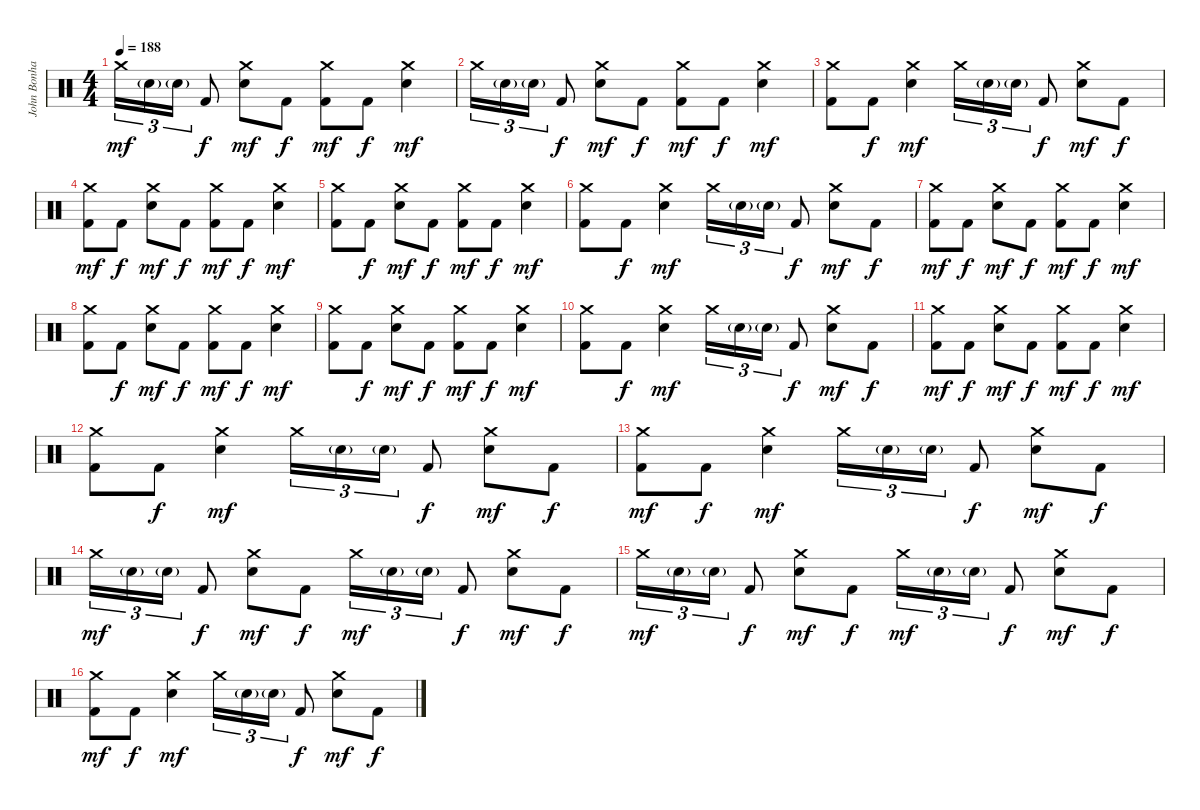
\track ("John Bonham - Drums" "John Bonha") {instrument percussion}
\staff {score}
\articulation defaults
\ts (4 4)
\tempo 188
\clef neutral
\ks c "Crash medium (hit)".16{tu (3 2) dy mf} "Electric Snare (hit)"{g}.16{tu (3 2)} "Electric Snare (hit)"{g}.16{tu (3 2)} "Kick (hit) 2".8{dy f}
("Crash medium (hit)" "Electric Snare (hit)").8{dy mf} "Kick (hit) 2".8{dy f} ("Crash medium (hit)" "Kick (hit) 2").8{dy mf} "Kick (hit) 2".8{dy f} ("Crash medium (hit)" "Electric Snare (hit)").4{dy mf} |
"Crash medium (hit)".16{tu (3 2)} "Electric Snare (hit)"{g}.16{tu (3 2)} "Electric Snare (hit)"{g}.16{tu (3 2)} "Kick (hit) 2".8{dy f} ("Crash medium (hit)" "Electric Snare (hit)").8{dy mf} "Kick (hit) 2".8{dy f} ("Crash medium (hit)" "Kick (hit) 2").8{dy mf} "Kick (hit) 2".8{dy f} ("Crash medium (hit)" "Electric Snare (hit)").4{dy mf} |
("Crash medium (hit)" "Kick (hit) 2").8 "Kick (hit) 2".8{dy f} ("Crash medium (hit)" "Electric Snare (hit)").4{dy mf} "Crash medium (hit)".16{tu (3 2)} "Electric Snare (hit)"{g}.16{tu (3 2)} "Electric Snare (hit)"{g}.16{tu (3 2)} "Kick (hit) 2".8{dy f} ("Crash medium (hit)" "Electric Snare (hit)").8{dy mf} "Kick (hit) 2".8{dy f} |
("Crash medium (hit)" "Kick (hit) 2").8{dy mf} "Kick (hit) 2".8{dy f} ("Crash medium (hit)" "Electric Snare (hit)").8{dy mf} "Kick (hit) 2".8{dy f} ("Crash medium (hit)" "Kick (hit) 2").8{dy mf} "Kick (hit) 2".8{dy f} ("Crash medium (hit)" "Electric Snare (hit)").4{dy mf} |
("Crash medium (hit)" "Kick (hit) 2").8 "Kick (hit) 2".8{dy f} ("Crash medium (hit)" "Electric Snare (hit)").8{dy mf} "Kick (hit) 2".8{dy f} ("Crash medium (hit)" "Kick (hit) 2").8{dy mf} "Kick (hit) 2".8{dy f} ("Crash medium (hit)" "Electric Snare (hit)").4{dy mf} |
("Crash medium (hit)" "Kick (hit) 2").8 "Kick (hit) 2".8{dy f} ("Crash medium (hit)" "Electric Snare (hit)").4{dy mf} "Crash medium (hit)".16{tu (3 2)} "Electric Snare (hit)"{g}.16{tu (3 2)} "Electric Snare (hit)"{g}.16{tu (3 2)} "Kick (hit) 2".8{dy f} ("Crash medium (hit)" "Electric Snare (hit)").8{dy mf} "Kick (hit) 2".8{dy f} |
("Crash medium (hit)" "Kick (hit) 2").8{dy mf} "Kick (hit) 2".8{dy f} ("Crash medium (hit)" "Electric Snare (hit)").8{dy mf} "Kick (hit) 2".8{dy f} ("Crash medium (hit)" "Kick (hit) 2").8{dy mf} "Kick (hit) 2".8{dy f} ("Crash medium (hit)" "Electric Snare (hit)").4{dy mf} |
("Crash medium (hit)" "Kick (hit) 2").8 "Kick (hit) 2".8{dy f} ("Crash medium (hit)" "Electric Snare (hit)").8{dy mf} "Kick (hit) 2".8{dy f} ("Crash medium (hit)" "Kick (hit) 2").8{dy mf} "Kick (hit) 2".8{dy f} ("Crash medium (hit)" "Electric Snare (hit)").4{dy mf} |
("Crash medium (hit)" "Kick (hit) 2").8 "Kick (hit) 2".8{dy f} ("Crash medium (hit)" "Electric Snare (hit)").8{dy mf} "Kick (hit) 2".8{dy f} ("Crash medium (hit)" "Kick (hit) 2").8{dy mf} "Kick (hit) 2".8{dy f} ("Crash medium (hit)" "Electric Snare (hit)").4{dy mf} |
("Crash medium (hit)" "Kick (hit) 2").8 "Kick (hit) 2".8{dy f} ("Crash medium (hit)" "Electric Snare (hit)").4{dy mf} "Crash medium (hit)".16{tu (3 2)} "Electric Snare (hit)"{g}.16{tu (3 2)} "Electric Snare (hit)"{g}.16{tu (3 2)} "Kick (hit) 2".8{dy f} ("Crash medium (hit)" "Electric Snare (hit)").8{dy mf} "Kick (hit) 2".8{dy f} |
("Crash medium (hit)" "Kick (hit) 2").8{dy mf} "Kick (hit) 2".8{dy f} ("Crash medium (hit)" "Electric Snare (hit)").8{dy mf} "Kick (hit) 2".8{dy f} ("Crash medium (hit)" "Kick (hit) 2").8{dy mf} "Kick (hit) 2".8{dy f} ("Crash medium (hit)" "Electric Snare (hit)").4{dy mf} |
("Crash medium (hit)" "Kick (hit) 2").8 "Kick (hit) 2".8{dy f} ("Crash medium (hit)" "Electric Snare (hit)").4{dy mf} "Crash medium (hit)".16{tu (3 2)} "Electric Snare (hit)"{g}.16{tu (3 2)} "Electric Snare (hit)"{g}.16{tu (3 2)} "Kick (hit) 2".8{dy f} ("Crash medium (hit)" "Electric Snare (hit)").8{dy mf} "Kick (hit) 2".8{dy f} |
("Crash medium (hit)" "Kick (hit) 2").8{dy mf} "Kick (hit) 2".8{dy f} ("Crash medium (hit)" "Electric Snare (hit)").4{dy mf} "Crash medium (hit)".16{tu (3 2)} "Electric Snare (hit)"{g}.16{tu (3 2)} "Electric Snare (hit)"{g}.16{tu (3 2)} "Kick (hit) 2".8{dy f} ("Crash medium (hit)" "Electric Snare (hit)").8{dy mf} "Kick (hit) 2".8{dy f} |
"Crash medium (hit)".16{tu (3 2) dy mf} "Electric Snare (hit)"{g}.16{tu (3 2)} "Electric Snare (hit)"{g}.16{tu (3 2)} "Kick (hit) 2".8{dy f} ("Crash medium (hit)" "Electric Snare (hit)").8{dy mf} "Kick (hit) 2".8{dy f} "Crash medium (hit)".16{tu (3 2) dy mf} "Electric Snare (hit)"{g}.16{tu (3 2)} "Electric Snare (hit)"{g}.16{tu (3 2)} "Kick (hit) 2".8{dy f} ("Crash medium (hit)" "Electric Snare (hit)").8{dy mf} "Kick (hit) 2".8{dy f} |
"Crash medium (hit)".16{tu (3 2) dy mf} "Electric Snare (hit)"{g}.16{tu (3 2)} "Electric Snare (hit)"{g}.16{tu (3 2)} "Kick (hit) 2".8{dy f} ("Crash medium (hit)" "Electric Snare (hit)").8{dy mf} "Kick (hit) 2".8{dy f} "Crash medium (hit)".16{tu (3 2) dy mf} "Electric Snare (hit)"{g}.16{tu (3 2)} "Electric Snare (hit)"{g}.16{tu (3 2)} "Kick (hit) 2".8{dy f} ("Crash medium (hit)" "Electric Snare (hit)").8{dy mf} "Kick (hit) 2".8{dy f} |
("Crash medium (hit)" "Kick (hit) 2").8{dy mf} "Kick (hit) 2".8{dy f} ("Crash medium (hit)" "Electric Snare (hit)").4{dy mf} "Crash medium (hit)".16{tu (3 2)} "Electric Snare (hit)"{g}.16{tu (3 2)} "Electric Snare (hit)"{g}.16{tu (3 2)} "Kick (hit) 2".8{dy f} ("Crash medium (hit)" "Electric Snare (hit)").8{dy mf} "Kick (hit) 2".8{dy f}
